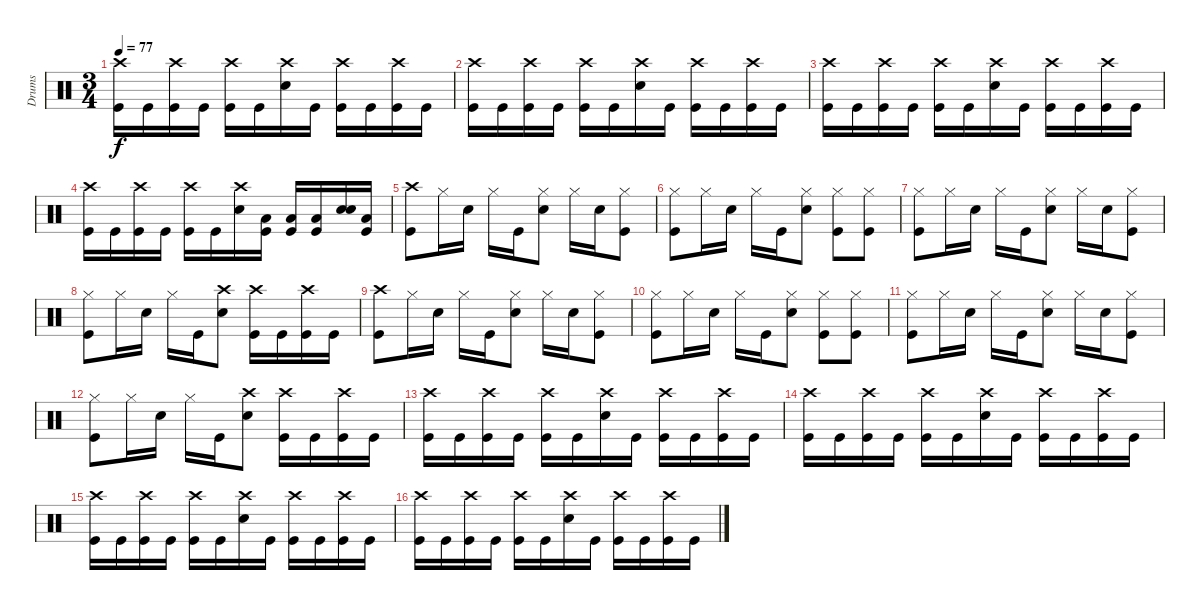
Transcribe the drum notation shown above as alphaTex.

\track ("Drums" "Drums") {instrument percussion}
\staff {score}
\articulation defaults
\ts (3 4)
\tempo 77
\clef neutral
\ks c
("Crash high (hit)" "Kick (hit)").16{dy f} "Kick (hit)".16 ("Crash high (hit)" "Kick (hit)").16 "Kick (hit)".16 ("Crash high (hit)" "Kick (hit)").16 "Kick (hit)".16 ("Crash high (hit)" "Snare (hit) 2").16 "Kick (hit)".16 ("Crash high (hit)" "Kick (hit)").16 "Kick (hit)".16 ("Crash high (hit)" "Kick (hit)").16 "Kick (hit)".16 |
("Crash high (hit)" "Kick (hit)").16 "Kick (hit)".16 ("Crash high (hit)" "Kick (hit)").16 "Kick (hit)".16 ("Crash high (hit)" "Kick (hit)").16 "Kick (hit)".16 ("Crash high (hit)" "Snare (hit) 2").16 "Kick (hit)".16 ("Crash high (hit)" "Kick (hit)").16 "Kick (hit)".16 ("Crash high (hit)" "Kick (hit)").16 "Kick (hit)".16 |
("Crash high (hit)" "Kick (hit)").16 "Kick (hit)".16 ("Crash high (hit)" "Kick (hit)").16 "Kick (hit)".16 ("Crash high (hit)" "Kick (hit)").16 "Kick (hit)".16 ("Crash high (hit)" "Snare (hit) 2").16 "Kick (hit)".16 ("Crash high (hit)" "Kick (hit)").16 "Kick (hit)".16 ("Crash high (hit)" "Kick (hit)").16 "Kick (hit)".16 |
("Crash high (hit)" "Kick (hit)").16 "Kick (hit)".16 ("Crash high (hit)" "Kick (hit)").16 "Kick (hit)".16 ("Crash high (hit)" "Kick (hit)").16 "Kick (hit)".16 ("Crash high (hit)" "Snare (hit) 2").16 ("Low Floor Tom (hit)" "Kick (hit)").16 ("Low Floor Tom (hit)" "Kick (hit)").16 ("Low Floor Tom (hit)" "Kick (hit)").16 ("Snare (hit) 2" "Snare (hit) 2").16 ("Low Floor Tom (hit)" "Kick (hit)").16 |
("Crash high (hit)" "Kick (hit)").8 "Hi-Hat (closed)".16 "Snare (hit) 2".16 "Hi-Hat (closed)".16 "Kick (hit)".16 ("Hi-Hat (closed)" "Snare (hit) 2").8 "Hi-Hat (closed)".16 "Snare (hit) 2".16 ("Hi-Hat (closed)" "Kick (hit)").8 |
("Hi-Hat (closed)" "Kick (hit)").8 "Hi-Hat (closed)".16 "Snare (hit) 2".16 "Hi-Hat (closed)".16 "Kick (hit)".16 ("Hi-Hat (closed)" "Snare (hit) 2").8 ("Hi-Hat (closed)" "Kick (hit)").8 ("Hi-Hat (closed)" "Kick (hit)").8 |
("Hi-Hat (closed)" "Kick (hit)").8 "Hi-Hat (closed)".16 "Snare (hit) 2".16 "Hi-Hat (closed)".16 "Kick (hit)".16 ("Hi-Hat (closed)" "Snare (hit) 2").8 "Hi-Hat (closed)".16 "Snare (hit) 2".16 ("Hi-Hat (closed)" "Kick (hit)").8 |
("Hi-Hat (closed)" "Kick (hit)").8 "Hi-Hat (closed)".16 "Snare (hit) 2".16 "Hi-Hat (closed)".16 "Kick (hit)".16 ("Crash high (hit)" "Snare (hit) 2").8 ("Crash high (hit)" "Kick (hit)").16 "Kick (hit)".16 ("Crash high (hit)" "Kick (hit)").16 "Kick (hit)".16 |
("Crash high (hit)" "Kick (hit)").8 "Hi-Hat (closed)".16 "Snare (hit) 2".16 "Hi-Hat (closed)".16 "Kick (hit)".16 ("Hi-Hat (closed)" "Snare (hit) 2").8 "Hi-Hat (closed)".16 "Snare (hit) 2".16 ("Hi-Hat (closed)" "Kick (hit)").8 |
("Hi-Hat (closed)" "Kick (hit)").8 "Hi-Hat (closed)".16 "Snare (hit) 2".16 "Hi-Hat (closed)".16 "Kick (hit)".16 ("Hi-Hat (closed)" "Snare (hit) 2").8 ("Hi-Hat (closed)" "Kick (hit)").8 ("Hi-Hat (closed)" "Kick (hit)").8 |
("Hi-Hat (closed)" "Kick (hit)").8 "Hi-Hat (closed)".16 "Snare (hit) 2".16 "Hi-Hat (closed)".16 "Kick (hit)".16 ("Hi-Hat (closed)" "Snare (hit) 2").8 "Hi-Hat (closed)".16 "Snare (hit) 2".16 ("Hi-Hat (closed)" "Kick (hit)").8 |
("Hi-Hat (closed)" "Kick (hit)").8 "Hi-Hat (closed)".16 "Snare (hit) 2".16 "Hi-Hat (closed)".16 "Kick (hit)".16 ("Crash high (hit)" "Snare (hit) 2").8 ("Crash high (hit)" "Kick (hit)").16 "Kick (hit)".16 ("Crash high (hit)" "Kick (hit)").16 "Kick (hit)".16 |
("Crash high (hit)" "Kick (hit)").16 "Kick (hit)".16 ("Crash high (hit)" "Kick (hit)").16 "Kick (hit)".16 ("Crash high (hit)" "Kick (hit)").16 "Kick (hit)".16 ("Crash high (hit)" "Snare (hit) 2").16 "Kick (hit)".16 ("Crash high (hit)" "Kick (hit)").16 "Kick (hit)".16 ("Crash high (hit)" "Kick (hit)").16 "Kick (hit)".16 |
("Crash high (hit)" "Kick (hit)").16 "Kick (hit)".16 ("Crash high (hit)" "Kick (hit)").16 "Kick (hit)".16 ("Crash high (hit)" "Kick (hit)").16 "Kick (hit)".16 ("Crash high (hit)" "Snare (hit) 2").16 "Kick (hit)".16 ("Crash high (hit)" "Kick (hit)").16 "Kick (hit)".16 ("Crash high (hit)" "Kick (hit)").16 "Kick (hit)".16 |
("Crash high (hit)" "Kick (hit)").16 "Kick (hit)".16 ("Crash high (hit)" "Kick (hit)").16 "Kick (hit)".16 ("Crash high (hit)" "Kick (hit)").16 "Kick (hit)".16 ("Crash high (hit)" "Snare (hit) 2").16 "Kick (hit)".16 ("Crash high (hit)" "Kick (hit)").16 "Kick (hit)".16 ("Crash high (hit)" "Kick (hit)").16 "Kick (hit)".16 |
("Crash high (hit)" "Kick (hit)").16 "Kick (hit)".16 ("Crash high (hit)" "Kick (hit)").16 "Kick (hit)".16 ("Crash high (hit)" "Kick (hit)").16 "Kick (hit)".16 ("Crash high (hit)" "Snare (hit) 2").16 "Kick (hit)".16 ("Crash high (hit)" "Kick (hit)").16 "Kick (hit)".16 ("Crash high (hit)" "Kick (hit)").16 "Kick (hit)".16
